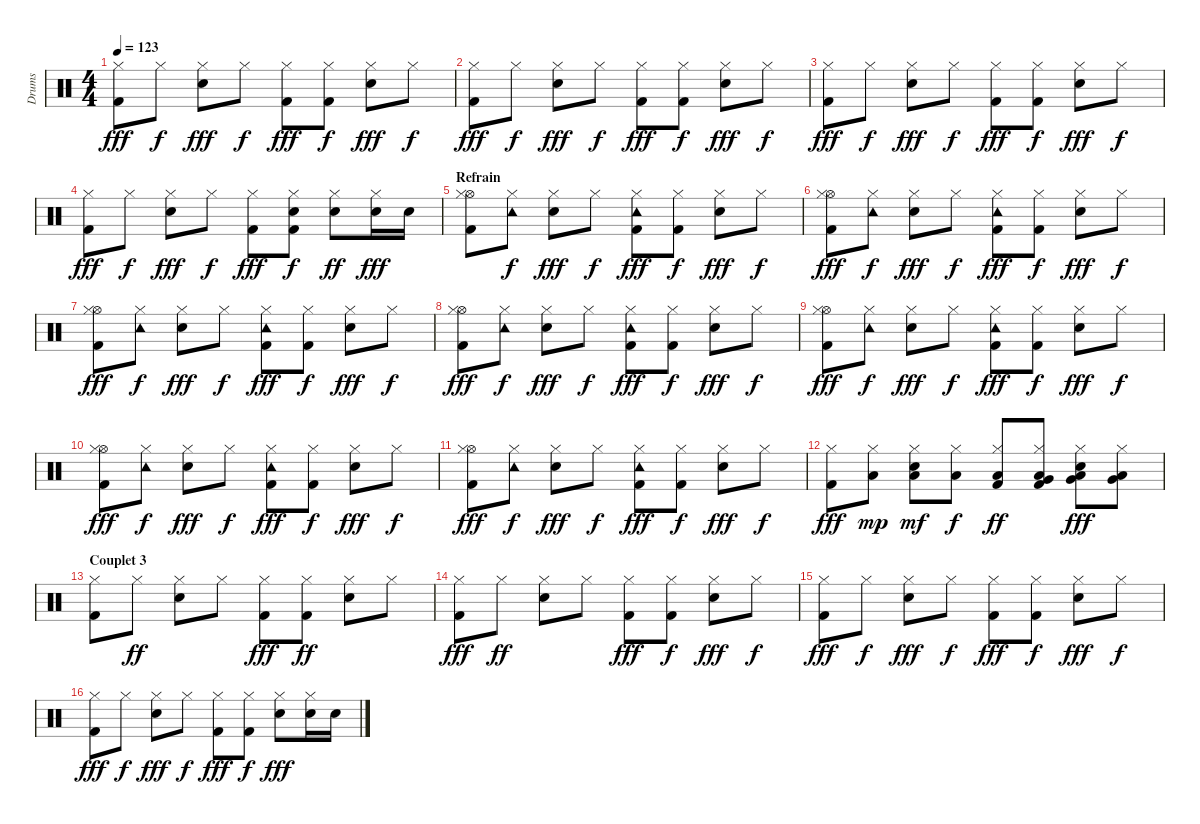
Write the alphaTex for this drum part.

\track ("Drums" "Drums") {instrument percussion}
\staff {score}
\articulation defaults
\ts (4 4)
\tempo 123
\clef neutral
\ks c
("Kick (hit) 2" "Hi-Hat (closed)").8{dy fff} "Hi-Hat (closed)".8{dy f} ("Snare (hit) 2" "Hi-Hat (closed)").8{dy fff} "Hi-Hat (closed)".8{dy f} ("Kick (hit) 2" "Hi-Hat (closed)").8{dy fff} ("Kick (hit) 2" "Hi-Hat (closed)").8{dy f} ("Snare (hit) 2" "Hi-Hat (closed)").8{dy fff} "Hi-Hat (closed)".8{dy f} |
("Kick (hit) 2" "Hi-Hat (closed)").8{dy fff} "Hi-Hat (closed)".8{dy f} ("Snare (hit) 2" "Hi-Hat (closed)").8{dy fff} "Hi-Hat (closed)".8{dy f} ("Kick (hit) 2" "Hi-Hat (closed)").8{dy fff} ("Kick (hit) 2" "Hi-Hat (closed)").8{dy f} ("Snare (hit) 2" "Hi-Hat (closed)").8{dy fff} "Hi-Hat (closed)".8{dy f} |
("Kick (hit) 2" "Hi-Hat (closed)").8{dy fff} "Hi-Hat (closed)".8{dy f} ("Snare (hit) 2" "Hi-Hat (closed)").8{dy fff} "Hi-Hat (closed)".8{dy f} ("Kick (hit) 2" "Hi-Hat (closed)").8{dy fff} ("Kick (hit) 2" "Hi-Hat (closed)").8{dy f} ("Snare (hit) 2" "Hi-Hat (closed)").8{dy fff} "Hi-Hat (closed)".8{dy f} |
("Kick (hit) 2" "Hi-Hat (closed)").8{dy fff} "Hi-Hat (closed)".8{dy f} ("Snare (hit) 2" "Hi-Hat (closed)").8{dy fff} "Hi-Hat (closed)".8{dy f} ("Kick (hit) 2" "Hi-Hat (closed)").8{dy fff} ("Kick (hit) 2" "Snare (hit) 2" "Hi-Hat (closed)").8{dy f} ("Snare (hit) 2" "Hi-Hat (closed)").8{dy ff} ("Snare (hit) 2" "Hi-Hat (closed)").16{dy fff} "Snare (hit) 2".16 |
\section ("" "Refrain")
("Kick (hit) 2" "Hi-Hat (open)" "Hi-Hat (closed)").8 ("Tambourine (hit)" "Hi-Hat (closed)").8{dy f} ("Snare (hit) 2" "Hi-Hat (closed)").8{dy fff} "Hi-Hat (closed)".8{dy f} ("Kick (hit) 2" "Tambourine (hit)" "Hi-Hat (closed)").8{dy fff} ("Kick (hit) 2" "Hi-Hat (closed)").8{dy f} ("Snare (hit) 2" "Hi-Hat (closed)").8{dy fff} "Hi-Hat (closed)".8{dy f} |
("Kick (hit) 2" "Hi-Hat (open)" "Hi-Hat (closed)").8{dy fff} ("Tambourine (hit)" "Hi-Hat (closed)").8{dy f} ("Snare (hit) 2" "Hi-Hat (closed)").8{dy fff} "Hi-Hat (closed)".8{dy f} ("Kick (hit) 2" "Tambourine (hit)" "Hi-Hat (closed)").8{dy fff} ("Kick (hit) 2" "Hi-Hat (closed)").8{dy f} ("Snare (hit) 2" "Hi-Hat (closed)").8{dy fff} "Hi-Hat (closed)".8{dy f} |
("Kick (hit) 2" "Hi-Hat (open)" "Hi-Hat (closed)").8{dy fff} ("Tambourine (hit)" "Hi-Hat (closed)").8{dy f} ("Snare (hit) 2" "Hi-Hat (closed)").8{dy fff} "Hi-Hat (closed)".8{dy f} ("Kick (hit) 2" "Tambourine (hit)" "Hi-Hat (closed)").8{dy fff} ("Kick (hit) 2" "Hi-Hat (closed)").8{dy f} ("Snare (hit) 2" "Hi-Hat (closed)").8{dy fff} "Hi-Hat (closed)".8{dy f} |
("Kick (hit) 2" "Hi-Hat (open)" "Hi-Hat (closed)").8{dy fff} ("Tambourine (hit)" "Hi-Hat (closed)").8{dy f} ("Snare (hit) 2" "Hi-Hat (closed)").8{dy fff} "Hi-Hat (closed)".8{dy f} ("Kick (hit) 2" "Tambourine (hit)" "Hi-Hat (closed)").8{dy fff} ("Kick (hit) 2" "Hi-Hat (closed)").8{dy f} ("Snare (hit) 2" "Hi-Hat (closed)").8{dy fff} "Hi-Hat (closed)".8{dy f} |
("Kick (hit) 2" "Hi-Hat (open)" "Hi-Hat (closed)").8{dy fff} ("Tambourine (hit)" "Hi-Hat (closed)").8{dy f} ("Snare (hit) 2" "Hi-Hat (closed)").8{dy fff} "Hi-Hat (closed)".8{dy f} ("Kick (hit) 2" "Tambourine (hit)" "Hi-Hat (closed)").8{dy fff} ("Kick (hit) 2" "Hi-Hat (closed)").8{dy f} ("Snare (hit) 2" "Hi-Hat (closed)").8{dy fff} "Hi-Hat (closed)".8{dy f} |
("Kick (hit) 2" "Hi-Hat (open)" "Hi-Hat (closed)").8{dy fff} ("Tambourine (hit)" "Hi-Hat (closed)").8{dy f} ("Snare (hit) 2" "Hi-Hat (closed)").8{dy fff} "Hi-Hat (closed)".8{dy f} ("Kick (hit) 2" "Tambourine (hit)" "Hi-Hat (closed)").8{dy fff} ("Kick (hit) 2" "Hi-Hat (closed)").8{dy f} ("Snare (hit) 2" "Hi-Hat (closed)").8{dy fff} "Hi-Hat (closed)".8{dy f} |
("Kick (hit) 2" "Hi-Hat (open)" "Hi-Hat (closed)").8{dy fff} ("Tambourine (hit)" "Hi-Hat (closed)").8{dy f} ("Snare (hit) 2" "Hi-Hat (closed)").8{dy fff} "Hi-Hat (closed)".8{dy f} ("Kick (hit) 2" "Tambourine (hit)" "Hi-Hat (closed)").8{dy fff} ("Kick (hit) 2" "Hi-Hat (closed)").8{dy f} ("Snare (hit) 2" "Hi-Hat (closed)").8{dy fff} "Hi-Hat (closed)".8{dy f} |
("Kick (hit) 2" "Hi-Hat (closed)").8{dy fff} ("Low Tom (hit)" "Hi-Hat (closed)").8{dy mp} ("Snare (hit) 2" "Low Tom (hit)" "Hi-Hat (closed)").8{dy mf} ("Low Tom (hit)" "Hi-Hat (closed)").8{dy f} ("Kick (hit) 2" "Low Tom (hit)" "Hi-Hat (closed)").8{dy ff} ("Kick (hit) 2" "Very Low Tom (hit)" "Low Tom (hit)" "Hi-Hat (closed)").8 ("Snare (hit) 2" "Very Low Tom (hit)" "Low Tom (hit)" "Hi-Hat (closed)").8{dy fff} ("Very Low Tom (hit)" "Low Tom (hit)" "Hi-Hat (closed)").8 |
\section ("" "Couplet 3")
("Kick (hit) 2" "Hi-Hat (closed)").8 "Hi-Hat (closed)".8{dy ff} ("Snare (hit) 2" "Hi-Hat (closed)").8 "Hi-Hat (closed)".8 ("Kick (hit) 2" "Hi-Hat (closed)").8{dy fff} ("Kick (hit) 2" "Hi-Hat (closed)").8{dy ff} ("Snare (hit) 2" "Hi-Hat (closed)").8 "Hi-Hat (closed)".8 |
("Kick (hit) 2" "Hi-Hat (closed)").8{dy fff} "Hi-Hat (closed)".8{dy ff} ("Snare (hit) 2" "Hi-Hat (closed)").8 "Hi-Hat (closed)".8 ("Kick (hit) 2" "Hi-Hat (closed)").8{dy fff} ("Kick (hit) 2" "Hi-Hat (closed)").8{dy f} ("Snare (hit) 2" "Hi-Hat (closed)").8{dy fff} "Hi-Hat (closed)".8{dy f} |
("Kick (hit) 2" "Hi-Hat (closed)").8{dy fff} "Hi-Hat (closed)".8{dy f} ("Snare (hit) 2" "Hi-Hat (closed)").8{dy fff} "Hi-Hat (closed)".8{dy f} ("Kick (hit) 2" "Hi-Hat (closed)").8{dy fff} ("Kick (hit) 2" "Hi-Hat (closed)").8{dy f} ("Snare (hit) 2" "Hi-Hat (closed)").8{dy fff} "Hi-Hat (closed)".8{dy f} |
("Kick (hit) 2" "Hi-Hat (closed)").8{dy fff} "Hi-Hat (closed)".8{dy f} ("Snare (hit) 2" "Hi-Hat (closed)").8{dy fff} "Hi-Hat (closed)".8{dy f} ("Kick (hit) 2" "Hi-Hat (closed)").8{dy fff} ("Kick (hit) 2" "Hi-Hat (closed)").8{dy f} ("Snare (hit) 2" "Hi-Hat (closed)").8{dy fff} ("Snare (hit) 2" "Hi-Hat (closed)").16 "Snare (hit) 2".16
